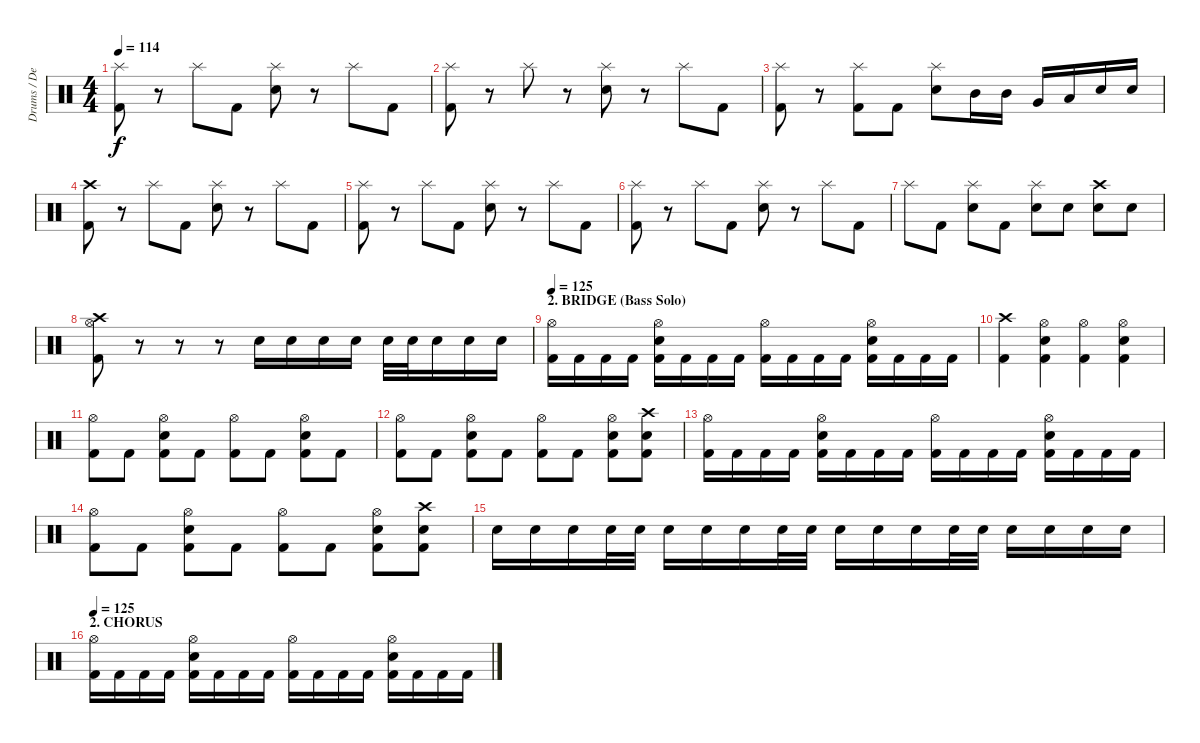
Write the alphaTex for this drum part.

\track ("Drums / Dennis" "Drums / De") {instrument percussion}
\staff {score}
\articulation defaults
\ts (4 4)
\tempo 114
\clef neutral
\ks c
("Kick (hit) 2" "Splash (hit)").8{dy f} r.8 "Splash (hit)".8 "Kick (hit) 2".8 ("Electric Snare (hit)" "Splash (hit)").8 r.8 "Splash (hit)".8 "Kick (hit) 2".8 |
("Kick (hit) 2" "Splash (hit)").8 r.8 "Splash (hit)".8 r.8 ("Electric Snare (hit)" "Splash (hit)").8 r.8 "Splash (hit)".8 "Kick (hit) 2".8 |
("Kick (hit) 2" "Splash (hit)").8 r.8 ("Kick (hit) 2" "Splash (hit)").8 "Kick (hit) 2".8 ("Electric Snare (hit)" "Splash (hit)").8 "Mid Tom (hit)".16 "Mid Tom (hit)".16 "Very Low Tom (hit)".16 "Low Floor Tom (hit)".16 "Electric Snare (hit)".16 "Electric Snare (hit)".16 |
("Kick (hit) 2" "Crash high (hit)").8 r.8 "Splash (hit)".8 "Kick (hit) 2".8 ("Electric Snare (hit)" "Splash (hit)").8 r.8 "Splash (hit)".8 "Kick (hit) 2".8 |
("Kick (hit) 2" "Splash (hit)").8 r.8 "Splash (hit)".8 "Kick (hit) 2".8 ("Electric Snare (hit)" "Splash (hit)").8 r.8 "Splash (hit)".8 "Kick (hit) 2".8 |
("Kick (hit) 2" "Splash (hit)").8 r.8 "Splash (hit)".8 "Kick (hit) 2".8 ("Electric Snare (hit)" "Splash (hit)").8 r.8 "Splash (hit)".8 "Kick (hit) 2".8 |
"Splash (hit)".8 "Kick (hit) 2".8 ("Electric Snare (hit)" "Splash (hit)").8 "Kick (hit) 2".8 ("Electric Snare (hit)" "Splash (hit)").8 "Electric Snare (hit)".8 ("Electric Snare (hit)" "Crash high (hit)").8 "Electric Snare (hit)".8 |
("Hi-Hat (open)" "Crash high (hit)" "Kick (hit) 2").8 r.8 r.8 r.8 "Electric Snare (hit)".16 "Electric Snare (hit)".16 "Electric Snare (hit)".16 "Electric Snare (hit)".16 "Electric Snare (hit)".32 "Electric Snare (hit)".32 "Electric Snare (hit)".16 "Electric Snare (hit)".16 "Electric Snare (hit)".16 |
\section ("" "2. BRIDGE (Bass Solo)")
\tempo 125
("Hi-Hat (open)" "Kick (hit) 2").16{volume 11} "Kick (hit) 2".16 "Kick (hit) 2".16 "Kick (hit) 2".16 ("Hi-Hat (open)" "Electric Snare (hit)" "Kick (hit) 2").16 "Kick (hit) 2".16 "Kick (hit) 2".16 "Kick (hit) 2".16 ("Hi-Hat (open)" "Kick (hit) 2").16 "Kick (hit) 2".16 "Kick (hit) 2".16 "Kick (hit) 2".16 ("Hi-Hat (open)" "Electric Snare (hit)" "Kick (hit) 2").16 "Kick (hit) 2".16 "Kick (hit) 2".16 "Kick (hit) 2".16 |
("Crash high (hit)" "Kick (hit) 2").4 ("Hi-Hat (open)" "Electric Snare (hit)" "Kick (hit) 2").4 ("Hi-Hat (open)" "Kick (hit) 2").4 ("Hi-Hat (open)" "Electric Snare (hit)" "Kick (hit) 2").4 |
("Hi-Hat (open)" "Kick (hit) 2").8 "Kick (hit) 2".8 ("Hi-Hat (open)" "Electric Snare (hit)" "Kick (hit) 2").8 "Kick (hit) 2".8 ("Hi-Hat (open)" "Kick (hit) 2").8 "Kick (hit) 2".8 ("Hi-Hat (open)" "Electric Snare (hit)" "Kick (hit) 2").8 "Kick (hit) 2".8 |
("Hi-Hat (open)" "Kick (hit) 2").8 "Kick (hit) 2".8 ("Hi-Hat (open)" "Electric Snare (hit)" "Kick (hit) 2").8 "Kick (hit) 2".8 ("Hi-Hat (open)" "Kick (hit) 2").8 "Kick (hit) 2".8 ("Hi-Hat (open)" "Electric Snare (hit)" "Kick (hit) 2").8 ("Crash high (hit)" "Electric Snare (hit)" "Kick (hit) 2").8 |
("Hi-Hat (open)" "Kick (hit) 2").16 "Kick (hit) 2".16 "Kick (hit) 2".16 "Kick (hit) 2".16 ("Hi-Hat (open)" "Electric Snare (hit)" "Kick (hit) 2").16 "Kick (hit) 2".16 "Kick (hit) 2".16 "Kick (hit) 2".16 ("Hi-Hat (open)" "Kick (hit) 2").16 "Kick (hit) 2".16 "Kick (hit) 2".16 "Kick (hit) 2".16 ("Hi-Hat (open)" "Electric Snare (hit)" "Kick (hit) 2").16 "Kick (hit) 2".16 "Kick (hit) 2".16 "Kick (hit) 2".16 |
("Hi-Hat (open)" "Kick (hit) 2").8 "Kick (hit) 2".8 ("Hi-Hat (open)" "Electric Snare (hit)" "Kick (hit) 2").8 "Kick (hit) 2".8 ("Hi-Hat (open)" "Kick (hit) 2").8 "Kick (hit) 2".8 ("Hi-Hat (open)" "Electric Snare (hit)" "Kick (hit) 2").8 ("Crash high (hit)" "Electric Snare (hit)" "Kick (hit) 2").8 |
"Electric Snare (hit)".16{volume 14} "Electric Snare (hit)".16 "Electric Snare (hit)".16 "Electric Snare (hit)".32 "Electric Snare (hit)".32 "Electric Snare (hit)".16 "Electric Snare (hit)".16 "Electric Snare (hit)".16 "Electric Snare (hit)".32 "Electric Snare (hit)".32 "Electric Snare (hit)".16 "Electric Snare (hit)".16 "Electric Snare (hit)".16 "Electric Snare (hit)".32 "Electric Snare (hit)".32 "Electric Snare (hit)".16 "Electric Snare (hit)".16 "Electric Snare (hit)".16 "Electric Snare (hit)".16 |
\section ("" "2. CHORUS")
\tempo 125
("Hi-Hat (open)" "Kick (hit) 2").16 "Kick (hit) 2".16 "Kick (hit) 2".16 "Kick (hit) 2".16 ("Hi-Hat (open)" "Electric Snare (hit)" "Kick (hit) 2").16 "Kick (hit) 2".16 "Kick (hit) 2".16 "Kick (hit) 2".16 ("Hi-Hat (open)" "Kick (hit) 2").16 "Kick (hit) 2".16 "Kick (hit) 2".16 "Kick (hit) 2".16 ("Hi-Hat (open)" "Electric Snare (hit)" "Kick (hit) 2").16 "Kick (hit) 2".16 "Kick (hit) 2".16 "Kick (hit) 2".16
